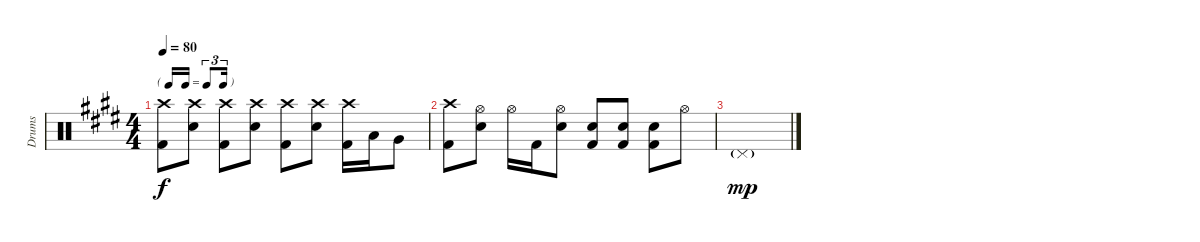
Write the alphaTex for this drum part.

\track ("Drums" "Drums") {instrument percussion}
\staff {score}
\articulation defaults
\ts (4 4)
\tf triplet16th
\tempo 80
\clef neutral
\ks e
("Kick (hit) 2" "Crash high (hit)").8{dy f} ("Crash high (hit)" "Electric Snare (hit)").8 ("Kick (hit) 2" "Crash high (hit)").8 ("Crash high (hit)" "Electric Snare (hit)").8 ("Kick (hit) 2" "Crash high (hit)").8 ("Crash high (hit)" "Electric Snare (hit)").8 ("Kick (hit) 2" "Crash high (hit)").16 "Low Tom (hit)".16 "Very Low Tom (hit)".8 |
("Kick (hit) 2" "Crash high (hit)").8 ("Electric Snare (hit)" "Hi-Hat (open)").8 "Hi-Hat (open)".16 "Kick (hit) 2".16 ("Electric Snare (hit)" "Hi-Hat (open)").8 ("Kick (hit) 2" "Electric Snare (hit)").8 ("Kick (hit) 2" "Electric Snare (hit)").8 ("Kick (hit) 2" "Electric Snare (hit)").8 "Hi-Hat (open)".8 |
"Pedal Hi-Hat (hit)"{g}.1{dy mp}
